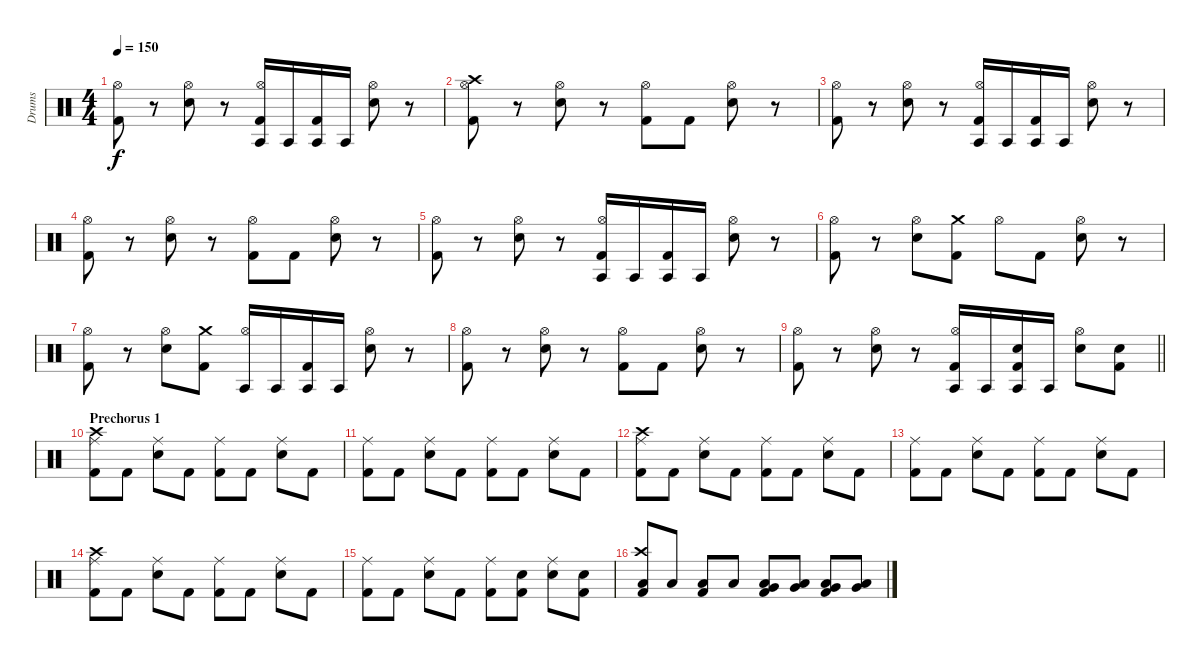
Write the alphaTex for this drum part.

\track ("Drums" "Drums") {instrument percussion}
\staff {score}
\articulation defaults
\ts (4 4)
\tempo 150
\clef neutral
\ks c
("Hi-Hat (open)" "Kick (hit) 2").8{dy f} r.8 ("Hi-Hat (open)" "Snare (hit) 2").8 r.8 ("Agogo tow (hit)" "Hi-Hat (open)" "Kick (hit) 2").16 "Agogo tow (hit)".16 ("Agogo tow (hit)" "Kick (hit) 2").16 "Agogo tow (hit)".16 ("Hi-Hat (open)" "Snare (hit) 2").8 r.8 |
("Crash high (hit)" "Hi-Hat (open)" "Kick (hit) 2").8 r.8 ("Hi-Hat (open)" "Snare (hit) 2").8 r.8 ("Hi-Hat (open)" "Kick (hit) 2").8 "Kick (hit) 2".8 ("Hi-Hat (open)" "Snare (hit) 2").8 r.8 |
("Hi-Hat (open)" "Kick (hit) 2").8 r.8 ("Hi-Hat (open)" "Snare (hit) 2").8 r.8 ("Agogo tow (hit)" "Hi-Hat (open)" "Kick (hit) 2").16 "Agogo tow (hit)".16 ("Agogo tow (hit)" "Kick (hit) 2").16 "Agogo tow (hit)".16 ("Hi-Hat (open)" "Snare (hit) 2").8 r.8 |
("Hi-Hat (open)" "Kick (hit) 2").8 r.8 ("Hi-Hat (open)" "Snare (hit) 2").8 r.8 ("Hi-Hat (open)" "Kick (hit) 2").8 "Kick (hit) 2".8 ("Hi-Hat (open)" "Snare (hit) 2").8 r.8 |
("Hi-Hat (open)" "Kick (hit) 2").8 r.8 ("Hi-Hat (open)" "Snare (hit) 2").8 r.8 ("Agogo tow (hit)" "Hi-Hat (open)" "Kick (hit) 2").16 "Agogo tow (hit)".16 ("Agogo tow (hit)" "Kick (hit) 2").16 "Agogo tow (hit)".16 ("Hi-Hat (open)" "Snare (hit) 2").8 r.8 |
("Hi-Hat (open)" "Kick (hit) 2").8 r.8 ("Hi-Hat (open)" "Snare (hit) 2").8 ("Crash medium (hit)" "Kick (hit) 2").8 "Hi-Hat (open)".8 "Kick (hit) 2".8 ("Hi-Hat (open)" "Snare (hit) 2").8 r.8 |
("Hi-Hat (open)" "Kick (hit) 2").8 r.8 ("Hi-Hat (open)" "Snare (hit) 2").8 ("Crash medium (hit)" "Kick (hit) 2").8 ("Agogo tow (hit)" "Hi-Hat (open)").16 "Agogo tow (hit)".16 ("Agogo tow (hit)" "Kick (hit) 2").16 "Agogo tow (hit)".16 ("Hi-Hat (open)" "Snare (hit) 2").8 r.8 |
("Hi-Hat (open)" "Kick (hit) 2").8 r.8 ("Hi-Hat (open)" "Snare (hit) 2").8 r.8 ("Hi-Hat (open)" "Kick (hit) 2").8 "Kick (hit) 2".8 ("Hi-Hat (open)" "Snare (hit) 2").8 r.8 |
\barLineRight lightlight
("Hi-Hat (open)" "Kick (hit) 2").8 r.8 ("Hi-Hat (open)" "Snare (hit) 2").8 r.8 ("Agogo tow (hit)" "Hi-Hat (open)" "Kick (hit) 2").16 "Agogo tow (hit)".16 ("Agogo tow (hit)" "Snare (hit) 2" "Kick (hit) 2").16 "Agogo tow (hit)".16 ("Hi-Hat (open)" "Snare (hit) 2").8 ("Snare (hit) 2" "Kick (hit) 2").8 |
\section ("" "Prechorus 1")
("Crash high (hit)" "Ride (middle)" "Kick (hit) 2").8 "Kick (hit) 2".8 ("Ride (middle)" "Snare (hit) 2").8 "Kick (hit) 2".8 ("Ride (middle)" "Kick (hit) 2").8 "Kick (hit) 2".8 ("Ride (middle)" "Snare (hit) 2").8 "Kick (hit) 2".8 |
("Ride (middle)" "Kick (hit) 2").8 "Kick (hit) 2".8 ("Ride (middle)" "Snare (hit) 2").8 "Kick (hit) 2".8 ("Ride (middle)" "Kick (hit) 2").8 "Kick (hit) 2".8 ("Ride (middle)" "Snare (hit) 2").8 "Kick (hit) 2".8 |
("Crash high (hit)" "Ride (middle)" "Kick (hit) 2").8 "Kick (hit) 2".8 ("Ride (middle)" "Snare (hit) 2").8 "Kick (hit) 2".8 ("Ride (middle)" "Kick (hit) 2").8 "Kick (hit) 2".8 ("Ride (middle)" "Snare (hit) 2").8 "Kick (hit) 2".8 |
("Ride (middle)" "Kick (hit) 2").8 "Kick (hit) 2".8 ("Ride (middle)" "Snare (hit) 2").8 "Kick (hit) 2".8 ("Ride (middle)" "Kick (hit) 2").8 "Kick (hit) 2".8 ("Ride (middle)" "Snare (hit) 2").8 "Kick (hit) 2".8 |
("Crash high (hit)" "Ride (middle)" "Kick (hit) 2").8 "Kick (hit) 2".8 ("Ride (middle)" "Snare (hit) 2").8 "Kick (hit) 2".8 ("Ride (middle)" "Kick (hit) 2").8 "Kick (hit) 2".8 ("Ride (middle)" "Snare (hit) 2").8 "Kick (hit) 2".8 |
("Ride (middle)" "Kick (hit) 2").8 "Kick (hit) 2".8 ("Ride (middle)" "Snare (hit) 2").8 "Kick (hit) 2".8 ("Ride (middle)" "Kick (hit) 2").8 ("Snare (hit) 2" "Kick (hit) 2").8 ("Ride (middle)" "Snare (hit) 2").8 ("Snare (hit) 2" "Kick (hit) 2").8 |
("Crash high (hit)" "Low Floor Tom (hit)" "Kick (hit) 2").8 "Low Floor Tom (hit)".8 ("Low Floor Tom (hit)" "Kick (hit) 2").8 "Low Floor Tom (hit)".8 ("Very Low Tom (hit)" "Low Floor Tom (hit)" "Kick (hit) 2").8 ("Very Low Tom (hit)" "Low Floor Tom (hit)").8 ("Very Low Tom (hit)" "Low Floor Tom (hit)" "Kick (hit) 2").8 ("Very Low Tom (hit)" "Low Floor Tom (hit)").8
